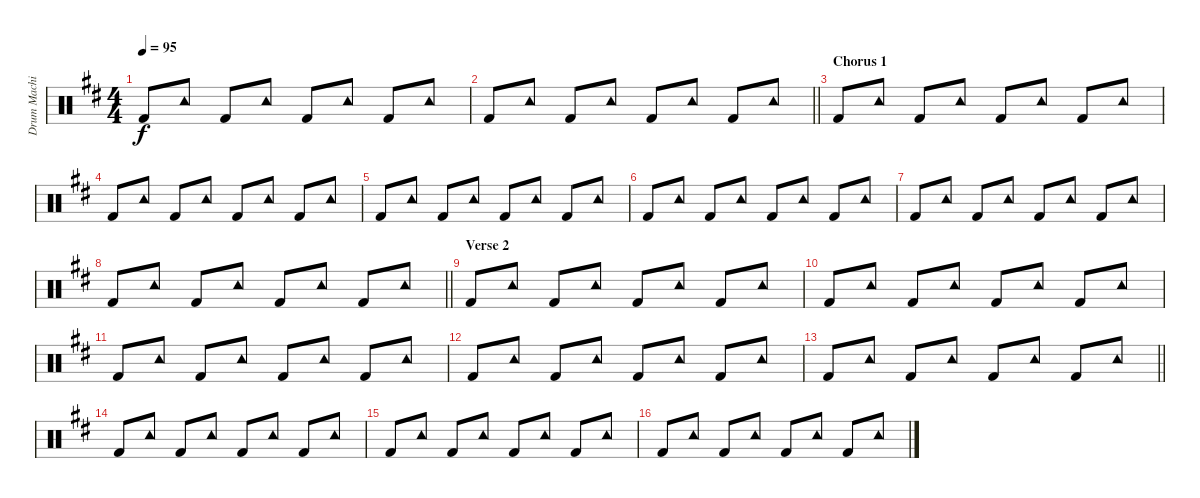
\track ("Drum Machine" "Drum Machi") {instrument percussion}
\staff {score}
\articulation defaults
\ts (4 4)
\tempo 95
\clef neutral
\ks d "Kick (hit) 2".8{dy f} "Tambourine (hit)".8 "Kick (hit) 2".8 "Tambourine (hit)".8 "Kick (hit) 2".8 "Tambourine (hit)".8 "Kick (hit) 2".8 "Tambourine (hit)".8
|
\barLineRight lightlight "Kick (hit) 2".8 "Tambourine (hit)".8 "Kick (hit) 2".8 "Tambourine (hit)".8 "Kick (hit) 2".8 "Tambourine (hit)".8 "Kick (hit) 2".8 "Tambourine (hit)".8
|
\section ("" "Chorus 1")
"Kick (hit) 2".8 "Tambourine (hit)".8 "Kick (hit) 2".8 "Tambourine (hit)".8 "Kick (hit) 2".8 "Tambourine (hit)".8 "Kick (hit) 2".8 "Tambourine (hit)".8 |
"Kick (hit) 2".8 "Tambourine (hit)".8 "Kick (hit) 2".8 "Tambourine (hit)".8 "Kick (hit) 2".8 "Tambourine (hit)".8 "Kick (hit) 2".8 "Tambourine (hit)".8 |
"Kick (hit) 2".8 "Tambourine (hit)".8 "Kick (hit) 2".8 "Tambourine (hit)".8 "Kick (hit) 2".8 "Tambourine (hit)".8 "Kick (hit) 2".8 "Tambourine (hit)".8 |
"Kick (hit) 2".8 "Tambourine (hit)".8 "Kick (hit) 2".8 "Tambourine (hit)".8 "Kick (hit) 2".8 "Tambourine (hit)".8 "Kick (hit) 2".8 "Tambourine (hit)".8 |
"Kick (hit) 2".8 "Tambourine (hit)".8 "Kick (hit) 2".8 "Tambourine (hit)".8 "Kick (hit) 2".8 "Tambourine (hit)".8 "Kick (hit) 2".8 "Tambourine (hit)".8 |
\barLineRight lightlight "Kick (hit) 2".8 "Tambourine (hit)".8 "Kick (hit) 2".8 "Tambourine (hit)".8 "Kick (hit) 2".8 "Tambourine (hit)".8 "Kick (hit) 2".8 "Tambourine (hit)".8
|
\section ("" "Verse 2")
"Kick (hit) 2".8 "Tambourine (hit)".8 "Kick (hit) 2".8 "Tambourine (hit)".8 "Kick (hit) 2".8 "Tambourine (hit)".8 "Kick (hit) 2".8 "Tambourine (hit)".8 |
"Kick (hit) 2".8 "Tambourine (hit)".8 "Kick (hit) 2".8 "Tambourine (hit)".8 "Kick (hit) 2".8 "Tambourine (hit)".8 "Kick (hit) 2".8 "Tambourine (hit)".8 |
"Kick (hit) 2".8 "Tambourine (hit)".8 "Kick (hit) 2".8 "Tambourine (hit)".8 "Kick (hit) 2".8 "Tambourine (hit)".8 "Kick (hit) 2".8 "Tambourine (hit)".8 |
"Kick (hit) 2".8 "Tambourine (hit)".8 "Kick (hit) 2".8 "Tambourine (hit)".8 "Kick (hit) 2".8 "Tambourine (hit)".8 "Kick (hit) 2".8 "Tambourine (hit)".8 |
\barLineRight lightlight "Kick (hit) 2".8 "Tambourine (hit)".8 "Kick (hit) 2".8 "Tambourine (hit)".8 "Kick (hit) 2".8 "Tambourine (hit)".8 "Kick (hit) 2".8 "Tambourine (hit)".8
|
\section ("" "")
"Kick (hit) 2".8 "Tambourine (hit)".8 "Kick (hit) 2".8 "Tambourine (hit)".8 "Kick (hit) 2".8 "Tambourine (hit)".8 "Kick (hit) 2".8 "Tambourine (hit)".8 |
"Kick (hit) 2".8 "Tambourine (hit)".8 "Kick (hit) 2".8 "Tambourine (hit)".8 "Kick (hit) 2".8 "Tambourine (hit)".8 "Kick (hit) 2".8 "Tambourine (hit)".8 |
"Kick (hit) 2".8 "Tambourine (hit)".8 "Kick (hit) 2".8 "Tambourine (hit)".8 "Kick (hit) 2".8 "Tambourine (hit)".8 "Kick (hit) 2".8 "Tambourine (hit)".8
